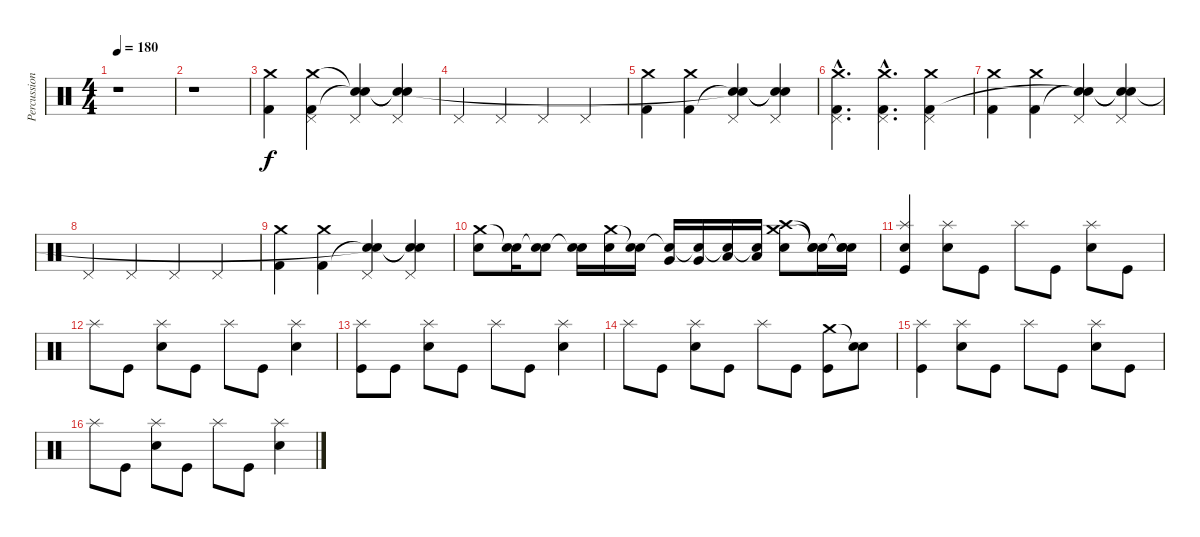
\track ("Percussion" "Percussion") {instrument percussion}
\staff {score}
\articulation defaults
\ts (4 4)
\tempo 180
\clef neutral
\ks c
r.1{dy f} |
r.1 |
("Crash medium (hit)" "Kick (hit) 2").4 ("Pedal Hi-Hat (hit)" "Crash medium (hit)" "Kick (hit) 2").4 ("Pedal Hi-Hat (hit)" "Snare (hit)"{t} "Snare (hit)"{t}).4 ("Pedal Hi-Hat (hit)" "Snare (hit)"{t} "Snare (hit)"{t}).4 |
"Pedal Hi-Hat (hit)".4 "Pedal Hi-Hat (hit)".4 "Pedal Hi-Hat (hit)".4 "Pedal Hi-Hat (hit)".4 |
("Crash medium (hit)" "Kick (hit) 2").4 ("Crash medium (hit)" "Kick (hit) 2").4 ("Pedal Hi-Hat (hit)" "Snare (hit)"{t} "Snare (hit)"{t}).4 ("Pedal Hi-Hat (hit)" "Snare (hit)"{t} "Snare (hit)"{t}).4 |
("Pedal Hi-Hat (hit)"{hac} "Crash medium (hit)"{hac} "Kick (hit) 2"{hac}).4{d} ("Pedal Hi-Hat (hit)"{hac} "Crash medium (hit)"{hac} "Kick (hit) 2"{hac}).4{d} ("Pedal Hi-Hat (hit)" "Crash medium (hit)" "Kick (hit) 2").4 |
("Crash medium (hit)" "Kick (hit) 2").4 ("Crash medium (hit)" "Kick (hit) 2").4 ("Pedal Hi-Hat (hit)" "Snare (hit)"{t} "Snare (hit)"{t}).4 ("Pedal Hi-Hat (hit)" "Snare (hit)"{t} "Snare (hit)"{t}).4 |
"Pedal Hi-Hat (hit)".4 "Pedal Hi-Hat (hit)".4 "Pedal Hi-Hat (hit)".4 "Pedal Hi-Hat (hit)".4 |
("Crash medium (hit)" "Kick (hit) 2").4 ("Crash medium (hit)" "Kick (hit) 2").4 ("Pedal Hi-Hat (hit)" "Snare (hit)"{t} "Snare (hit)"{t}).4 ("Pedal Hi-Hat (hit)" "Snare (hit)"{t} "Snare (hit)"{t}).4 |
("Crash medium (hit)" "Electric Snare (hit)").8 ("Snare (hit)"{t} "Electric Snare (hit)").16 ("Snare (hit)"{t} "Electric Snare (hit)").8 ("Snare (hit)"{t} "Electric Snare (hit)").16 ("Crash medium (hit)" "Electric Snare (hit)").16 ("Snare (hit)"{t} "Electric Snare (hit)").16 ("Snare (hit)"{t} "Very Low Tom (hit)").16 ("Snare (hit)"{t} "Very Low Tom (hit)").16 ("Snare (hit)"{t} "Low Floor Tom (hit)").16 ("Snare (hit)"{t} "Low Floor Tom (hit)").16 ("Crash high (hit)" "Crash medium (hit)" "Electric Snare (hit)").8 ("Snare (hit)"{t} "Snare (hit)"{t} "Electric Snare (hit)").16 ("Snare (hit)"{t} "Snare (hit)"{t} "Electric Snare (hit)").16 |
("Splash (hit)" "Kick (hit)" "Electric Snare (hit)").4 ("Splash (hit)" "Electric Snare (hit)").8 "Kick (hit)".8 "Splash (hit)".8 "Kick (hit)".8 ("Splash (hit)" "Electric Snare (hit)").8 "Kick (hit)".8 |
"Splash (hit)".8 "Kick (hit)".8 ("Splash (hit)" "Electric Snare (hit)").8 "Kick (hit)".8 "Splash (hit)".8 "Kick (hit)".8 ("Splash (hit)" "Electric Snare (hit)").4 |
("Splash (hit)" "Kick (hit)").8 "Kick (hit)".8 ("Splash (hit)" "Electric Snare (hit)").8 "Kick (hit)".8 "Splash (hit)".8 "Kick (hit)".8 ("Splash (hit)" "Electric Snare (hit)").4 |
"Splash (hit)".8 "Kick (hit)".8 ("Splash (hit)" "Electric Snare (hit)").8 "Kick (hit)".8 "Splash (hit)".8 "Kick (hit)".8 ("Crash medium (hit)" "Kick (hit)").8 ("Snare (hit)"{t} "Electric Snare (hit)").8 |
("Splash (hit)" "Kick (hit)").4 ("Splash (hit)" "Electric Snare (hit)").8 "Kick (hit)".8 "Splash (hit)".8 "Kick (hit)".8 ("Splash (hit)" "Electric Snare (hit)").8 "Kick (hit)".8 |
"Splash (hit)".8 "Kick (hit)".8 ("Splash (hit)" "Electric Snare (hit)").8 "Kick (hit)".8 "Splash (hit)".8 "Kick (hit)".8 ("Splash (hit)" "Electric Snare (hit)").4
